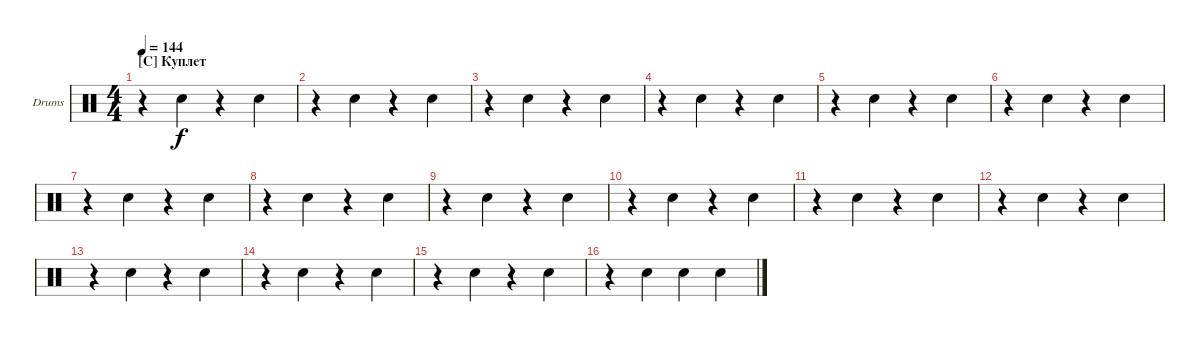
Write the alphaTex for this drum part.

\defaultSystemsLayout 4
\bracketExtendMode groupsimilarinstruments
\firstSystemTrackNameOrientation horizontal
\otherSystemsTrackNameOrientation horizontal
\track ("Snare" "Drums") {instrument percussion}
\staff {score}
\articulation defaults
\ts (4 4)
\section ("C" "Куплет")
\tempo 144
\clef neutral
\ks c
r.4{dy f} "Snare (hit) 2".4 r.4 "Snare (hit) 2".4 |
r.4 "Snare (hit) 2".4 r.4 "Snare (hit) 2".4 |
r.4 "Snare (hit) 2".4 r.4 "Snare (hit) 2".4 |
r.4 "Snare (hit) 2".4 r.4 "Snare (hit) 2".4 |
r.4 "Snare (hit) 2".4 r.4 "Snare (hit) 2".4 |
r.4 "Snare (hit) 2".4 r.4 "Snare (hit) 2".4 |
r.4 "Snare (hit) 2".4 r.4 "Snare (hit) 2".4 |
r.4 "Snare (hit) 2".4 r.4 "Snare (hit) 2".4 |
r.4 "Snare (hit) 2".4 r.4 "Snare (hit) 2".4 |
r.4 "Snare (hit) 2".4 r.4 "Snare (hit) 2".4 |
r.4 "Snare (hit) 2".4 r.4 "Snare (hit) 2".4 |
r.4 "Snare (hit) 2".4 r.4 "Snare (hit) 2".4 |
r.4 "Snare (hit) 2".4 r.4 "Snare (hit) 2".4 |
r.4 "Snare (hit) 2".4 r.4 "Snare (hit) 2".4 |
r.4 "Snare (hit) 2".4 r.4 "Snare (hit) 2".4 |
r.4 "Snare (hit) 2".4 "Snare (hit) 2".4 "Snare (hit) 2".4
